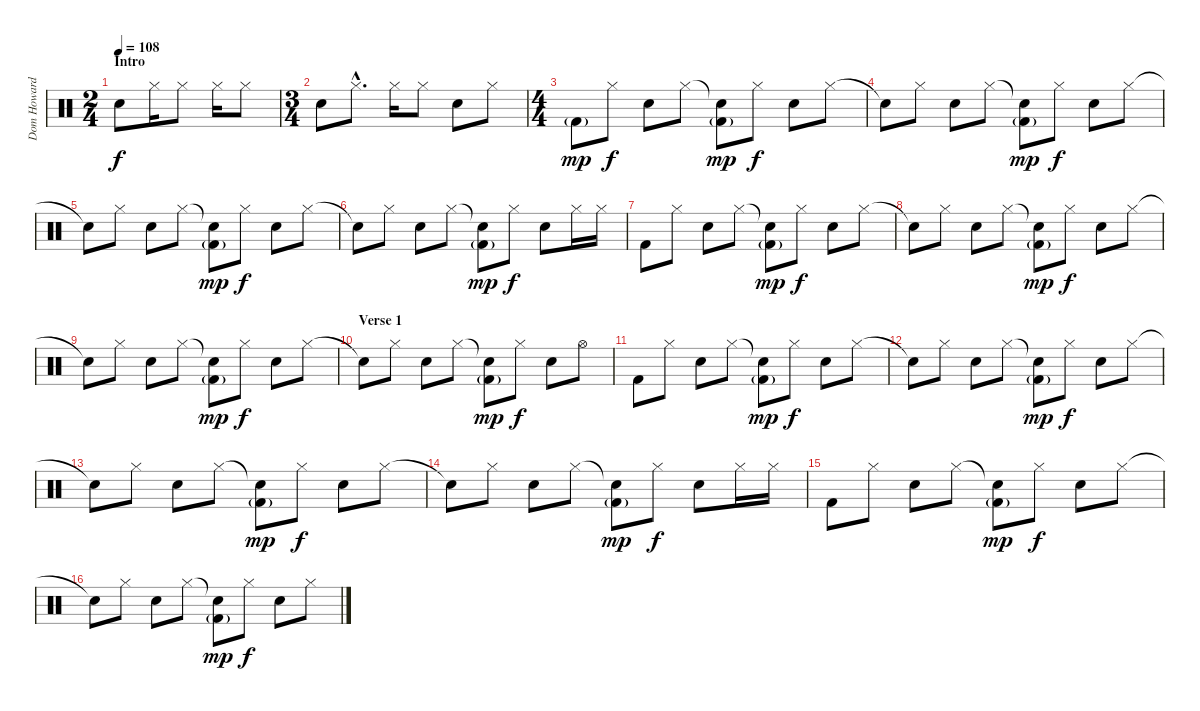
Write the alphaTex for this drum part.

\track ("Dom Howard" "Dom Howard") {instrument percussion}
\staff {score}
\articulation defaults
\ts (2 4)
\section ("" "Intro")
\tempo 108
\clef neutral
\ks c "Electric Snare (hit)".8{dy f} "Hi-Hat (closed)".16 "Hi-Hat (closed)".8 "Hi-Hat (closed)".16 "Hi-Hat (closed)".8
|
\ts (3 4)
"Electric Snare (hit)".8 "Hi-Hat (closed)"{hac}.8{d} "Hi-Hat (closed)".16 "Hi-Hat (closed)".8 "Electric Snare (hit)".8 "Hi-Hat (closed)".8 |
\ts (4 4)
"Kick (hit) 2"{g}.8{dy mp} "Hi-Hat (closed)".8{dy f} "Electric Snare (hit)".8 "Hi-Hat (closed)".8 ("Snare (hit)"{t} "Kick (hit) 2"{g}).8{dy mp} "Hi-Hat (closed)".8{dy f} "Electric Snare (hit)".8 "Hi-Hat (closed)".8 |
"Snare (hit)"{t}.8 "Hi-Hat (closed)".8 "Electric Snare (hit)".8 "Hi-Hat (closed)".8 ("Snare (hit)"{t} "Kick (hit) 2"{g}).8{dy mp} "Hi-Hat (closed)".8{dy f} "Electric Snare (hit)".8 "Hi-Hat (closed)".8 |
"Snare (hit)"{t}.8 "Hi-Hat (closed)".8 "Electric Snare (hit)".8 "Hi-Hat (closed)".8 ("Snare (hit)"{t} "Kick (hit) 2"{g}).8{dy mp} "Hi-Hat (closed)".8{dy f} "Electric Snare (hit)".8 "Hi-Hat (closed)".8 |
"Snare (hit)"{t}.8 "Hi-Hat (closed)".8 "Electric Snare (hit)".8 "Hi-Hat (closed)".8 ("Snare (hit)"{t} "Kick (hit) 2"{g}).8{dy mp} "Hi-Hat (closed)".8{dy f} "Electric Snare (hit)".8 "Hi-Hat (closed)".16 "Hi-Hat (closed)".16 |
"Kick (hit) 2".8 "Hi-Hat (closed)".8 "Electric Snare (hit)".8 "Hi-Hat (closed)".8 ("Snare (hit)"{t} "Kick (hit) 2"{g}).8{dy mp} "Hi-Hat (closed)".8{dy f} "Electric Snare (hit)".8 "Hi-Hat (closed)".8 |
"Snare (hit)"{t}.8 "Hi-Hat (closed)".8 "Electric Snare (hit)".8 "Hi-Hat (closed)".8 ("Snare (hit)"{t} "Kick (hit) 2"{g}).8{dy mp} "Hi-Hat (closed)".8{dy f} "Electric Snare (hit)".8 "Hi-Hat (closed)".8 |
"Snare (hit)"{t}.8 "Hi-Hat (closed)".8 "Electric Snare (hit)".8 "Hi-Hat (closed)".8 ("Snare (hit)"{t} "Kick (hit) 2"{g}).8{dy mp} "Hi-Hat (closed)".8{dy f} "Electric Snare (hit)".8 "Hi-Hat (closed)".8 |
\section ("" "Verse 1")
"Snare (hit)"{t}.8 "Hi-Hat (closed)".8 "Electric Snare (hit)".8 "Hi-Hat (closed)".8 ("Snare (hit)"{t} "Kick (hit) 2"{g}).8{dy mp} "Hi-Hat (closed)".8{dy f} "Electric Snare (hit)".8 "Hi-Hat (open)".8 |
"Kick (hit) 2".8 "Hi-Hat (closed)".8 "Electric Snare (hit)".8 "Hi-Hat (closed)".8 ("Snare (hit)"{t} "Kick (hit) 2"{g}).8{dy mp} "Hi-Hat (closed)".8{dy f} "Electric Snare (hit)".8 "Hi-Hat (closed)".8 |
"Snare (hit)"{t}.8 "Hi-Hat (closed)".8 "Electric Snare (hit)".8 "Hi-Hat (closed)".8 ("Snare (hit)"{t} "Kick (hit) 2"{g}).8{dy mp} "Hi-Hat (closed)".8{dy f} "Electric Snare (hit)".8 "Hi-Hat (closed)".8 |
"Snare (hit)"{t}.8 "Hi-Hat (closed)".8 "Electric Snare (hit)".8 "Hi-Hat (closed)".8 ("Snare (hit)"{t} "Kick (hit) 2"{g}).8{dy mp} "Hi-Hat (closed)".8{dy f} "Electric Snare (hit)".8 "Hi-Hat (closed)".8 |
"Snare (hit)"{t}.8 "Hi-Hat (closed)".8 "Electric Snare (hit)".8 "Hi-Hat (closed)".8 ("Snare (hit)"{t} "Kick (hit) 2"{g}).8{dy mp} "Hi-Hat (closed)".8{dy f} "Electric Snare (hit)".8 "Hi-Hat (closed)".16 "Hi-Hat (closed)".16 |
"Kick (hit) 2".8 "Hi-Hat (closed)".8 "Electric Snare (hit)".8 "Hi-Hat (closed)".8 ("Snare (hit)"{t} "Kick (hit) 2"{g}).8{dy mp} "Hi-Hat (closed)".8{dy f} "Electric Snare (hit)".8 "Hi-Hat (closed)".8 |
"Snare (hit)"{t}.8 "Hi-Hat (closed)".8 "Electric Snare (hit)".8 "Hi-Hat (closed)".8 ("Snare (hit)"{t} "Kick (hit) 2"{g}).8{dy mp} "Hi-Hat (closed)".8{dy f} "Electric Snare (hit)".8 "Hi-Hat (closed)".8
